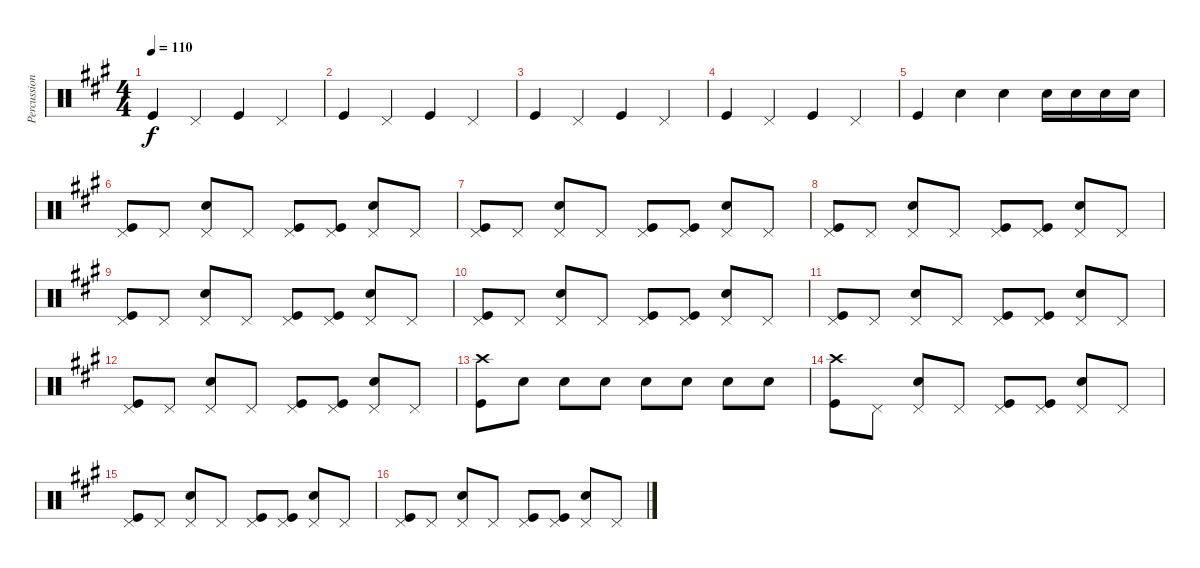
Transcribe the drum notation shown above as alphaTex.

\track ("Percussion" "Percussion") {instrument percussion}
\staff {score}
\articulation defaults
\ts (4 4)
\tempo 110
\clef neutral
\ks a "Kick (hit)".4{dy f} "Pedal Hi-Hat (hit)".4 "Kick (hit)".4 "Pedal Hi-Hat (hit)".4
|
"Kick (hit)".4 "Pedal Hi-Hat (hit)".4 "Kick (hit)".4 "Pedal Hi-Hat (hit)".4 |
"Kick (hit)".4 "Pedal Hi-Hat (hit)".4 "Kick (hit)".4 "Pedal Hi-Hat (hit)".4 |
"Kick (hit)".4 "Pedal Hi-Hat (hit)".4 "Kick (hit)".4 "Pedal Hi-Hat (hit)".4 |
"Kick (hit)".4 "Snare (hit) 2".4 "Snare (hit) 2".4 "Snare (hit) 2".16 "Snare (hit) 2".16 "Snare (hit) 2".16 "Snare (hit) 2".16 |
("Pedal Hi-Hat (hit)" "Kick (hit)").8 "Pedal Hi-Hat (hit)".8 ("Pedal Hi-Hat (hit)" "Snare (hit) 2").8 "Pedal Hi-Hat (hit)".8 ("Pedal Hi-Hat (hit)" "Kick (hit)").8 ("Pedal Hi-Hat (hit)" "Kick (hit)").8 ("Pedal Hi-Hat (hit)" "Snare (hit) 2").8 "Pedal Hi-Hat (hit)".8 |
("Pedal Hi-Hat (hit)" "Kick (hit)").8 "Pedal Hi-Hat (hit)".8 ("Pedal Hi-Hat (hit)" "Snare (hit) 2").8 "Pedal Hi-Hat (hit)".8 ("Pedal Hi-Hat (hit)" "Kick (hit)").8 ("Pedal Hi-Hat (hit)" "Kick (hit)").8 ("Pedal Hi-Hat (hit)" "Snare (hit) 2").8 "Pedal Hi-Hat (hit)".8 |
("Pedal Hi-Hat (hit)" "Kick (hit)").8 "Pedal Hi-Hat (hit)".8 ("Pedal Hi-Hat (hit)" "Snare (hit) 2").8 "Pedal Hi-Hat (hit)".8 ("Pedal Hi-Hat (hit)" "Kick (hit)").8 ("Pedal Hi-Hat (hit)" "Kick (hit)").8 ("Pedal Hi-Hat (hit)" "Snare (hit) 2").8 "Pedal Hi-Hat (hit)".8 |
("Pedal Hi-Hat (hit)" "Kick (hit)").8 "Pedal Hi-Hat (hit)".8 ("Pedal Hi-Hat (hit)" "Snare (hit) 2").8 "Pedal Hi-Hat (hit)".8 ("Pedal Hi-Hat (hit)" "Kick (hit)").8 ("Pedal Hi-Hat (hit)" "Kick (hit)").8 ("Pedal Hi-Hat (hit)" "Snare (hit) 2").8 "Pedal Hi-Hat (hit)".8 |
("Pedal Hi-Hat (hit)" "Kick (hit)").8 "Pedal Hi-Hat (hit)".8 ("Pedal Hi-Hat (hit)" "Snare (hit) 2").8 "Pedal Hi-Hat (hit)".8 ("Pedal Hi-Hat (hit)" "Kick (hit)").8 ("Pedal Hi-Hat (hit)" "Kick (hit)").8 ("Pedal Hi-Hat (hit)" "Snare (hit) 2").8 "Pedal Hi-Hat (hit)".8 |
("Pedal Hi-Hat (hit)" "Kick (hit)").8 "Pedal Hi-Hat (hit)".8 ("Pedal Hi-Hat (hit)" "Snare (hit) 2").8 "Pedal Hi-Hat (hit)".8 ("Pedal Hi-Hat (hit)" "Kick (hit)").8 ("Pedal Hi-Hat (hit)" "Kick (hit)").8 ("Pedal Hi-Hat (hit)" "Snare (hit) 2").8 "Pedal Hi-Hat (hit)".8 |
("Pedal Hi-Hat (hit)" "Kick (hit)").8 "Pedal Hi-Hat (hit)".8 ("Pedal Hi-Hat (hit)" "Snare (hit) 2").8 "Pedal Hi-Hat (hit)".8 ("Pedal Hi-Hat (hit)" "Kick (hit)").8 ("Pedal Hi-Hat (hit)" "Kick (hit)").8 ("Pedal Hi-Hat (hit)" "Snare (hit) 2").8 "Pedal Hi-Hat (hit)".8 |
("Crash high (hit)" "Kick (hit)").8 "Snare (hit) 2".8 "Snare (hit) 2".8 "Snare (hit) 2".8 "Snare (hit) 2".8 "Snare (hit) 2".8 "Snare (hit) 2".8 "Snare (hit) 2".8 |
("Crash high (hit)" "Kick (hit)").8 "Pedal Hi-Hat (hit)".8 ("Pedal Hi-Hat (hit)" "Snare (hit) 2").8 "Pedal Hi-Hat (hit)".8 ("Pedal Hi-Hat (hit)" "Kick (hit)").8 ("Pedal Hi-Hat (hit)" "Kick (hit)").8 ("Pedal Hi-Hat (hit)" "Snare (hit) 2").8 "Pedal Hi-Hat (hit)".8 |
("Pedal Hi-Hat (hit)" "Kick (hit)").8 "Pedal Hi-Hat (hit)".8 ("Pedal Hi-Hat (hit)" "Snare (hit) 2").8 "Pedal Hi-Hat (hit)".8 ("Pedal Hi-Hat (hit)" "Kick (hit)").8 ("Pedal Hi-Hat (hit)" "Kick (hit)").8 ("Pedal Hi-Hat (hit)" "Snare (hit) 2").8 "Pedal Hi-Hat (hit)".8 |
("Pedal Hi-Hat (hit)" "Kick (hit)").8 "Pedal Hi-Hat (hit)".8 ("Pedal Hi-Hat (hit)" "Snare (hit) 2").8 "Pedal Hi-Hat (hit)".8 ("Pedal Hi-Hat (hit)" "Kick (hit)").8 ("Pedal Hi-Hat (hit)" "Kick (hit)").8 ("Pedal Hi-Hat (hit)" "Snare (hit) 2").8 "Pedal Hi-Hat (hit)".8
